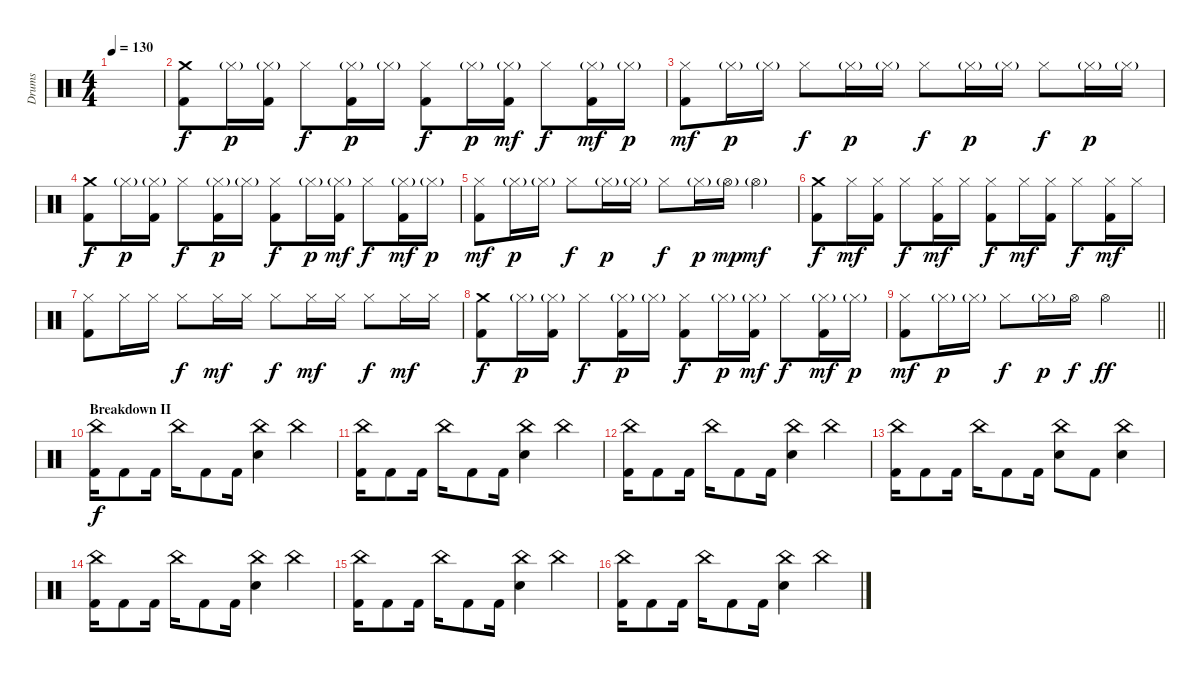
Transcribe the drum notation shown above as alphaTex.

\track ("Drums" "Drums") {instrument percussion}
\staff {score}
\articulation defaults
\ts (4 4)
\tempo 130
\clef neutral
\ks c
|
("Crash medium (hit)" "Kick (hit) 2").8{dy f} "Hi-Hat (closed)"{g}.16{dy p} ("Hi-Hat (closed)"{g} "Kick (hit) 2").16 "Hi-Hat (closed)".8{dy f} ("Hi-Hat (closed)"{g} "Kick (hit) 2").16{dy p} "Hi-Hat (closed)"{g}.16 ("Hi-Hat (closed)" "Kick (hit) 2").8{dy f} "Hi-Hat (closed)"{g}.16{dy p} ("Hi-Hat (closed)"{g} "Kick (hit) 2").16{dy mf} "Hi-Hat (closed)".8{dy f} ("Hi-Hat (closed)"{g} "Kick (hit) 2").16{dy mf} "Hi-Hat (closed)"{g}.16{dy p} |
("Hi-Hat (closed)" "Kick (hit) 2").8{dy mf} "Hi-Hat (closed)"{g}.16{dy p} "Hi-Hat (closed)"{g}.16 "Hi-Hat (closed)".8{dy f} "Hi-Hat (closed)"{g}.16{dy p} "Hi-Hat (closed)"{g}.16 "Hi-Hat (closed)".8{dy f} "Hi-Hat (closed)"{g}.16{dy p} "Hi-Hat (closed)"{g}.16 "Hi-Hat (closed)".8{dy f} "Hi-Hat (closed)"{g}.16{dy p} "Hi-Hat (closed)"{g}.16 |
("Crash medium (hit)" "Kick (hit) 2").8{dy f} "Hi-Hat (closed)"{g}.16{dy p} ("Hi-Hat (closed)"{g} "Kick (hit) 2").16 "Hi-Hat (closed)".8{dy f} ("Hi-Hat (closed)"{g} "Kick (hit) 2").16{dy p} "Hi-Hat (closed)"{g}.16 ("Hi-Hat (closed)" "Kick (hit) 2").8{dy f} "Hi-Hat (closed)"{g}.16{dy p} ("Hi-Hat (closed)"{g} "Kick (hit) 2").16{dy mf} "Hi-Hat (closed)".8{dy f} ("Hi-Hat (closed)"{g} "Kick (hit) 2").16{dy mf} "Hi-Hat (closed)"{g}.16{dy p} |
("Hi-Hat (closed)" "Kick (hit) 2").8{dy mf} "Hi-Hat (closed)"{g}.16{dy p} "Hi-Hat (closed)"{g}.16 "Hi-Hat (closed)".8{dy f} "Hi-Hat (closed)"{g}.16{dy p} "Hi-Hat (closed)"{g}.16 "Hi-Hat (closed)".8{dy f} "Hi-Hat (closed)"{g}.16{dy p} "Hi-Hat (open)"{g}.16{dy mp} "Hi-Hat (open)"{g}.4{dy mf} |
("Crash medium (hit)" "Kick (hit) 2").8{dy f} "Hi-Hat (closed)".16{dy mf} ("Hi-Hat (closed)" "Kick (hit) 2").16 "Hi-Hat (closed)".8{dy f} ("Hi-Hat (closed)" "Kick (hit) 2").16{dy mf} "Hi-Hat (closed)".16 ("Hi-Hat (closed)" "Kick (hit) 2").8{dy f} "Hi-Hat (closed)".16{dy mf} ("Hi-Hat (closed)" "Kick (hit) 2").16 "Hi-Hat (closed)".8{dy f} ("Hi-Hat (closed)" "Kick (hit) 2").16{dy mf} "Hi-Hat (closed)".16 |
("Hi-Hat (closed)" "Kick (hit) 2").8 "Hi-Hat (closed)".16 "Hi-Hat (closed)".16 "Hi-Hat (closed)".8{dy f} "Hi-Hat (closed)".16{dy mf} "Hi-Hat (closed)".16 "Hi-Hat (closed)".8{dy f} "Hi-Hat (closed)".16{dy mf} "Hi-Hat (closed)".16 "Hi-Hat (closed)".8{dy f} "Hi-Hat (closed)".16{dy mf} "Hi-Hat (closed)".16 |
("Crash medium (hit)" "Kick (hit) 2").8{dy f} "Hi-Hat (closed)"{g}.16{dy p} ("Hi-Hat (closed)"{g} "Kick (hit) 2").16 "Hi-Hat (closed)".8{dy f} ("Hi-Hat (closed)"{g} "Kick (hit) 2").16{dy p} "Hi-Hat (closed)"{g}.16 ("Hi-Hat (closed)" "Kick (hit) 2").8{dy f} "Hi-Hat (closed)"{g}.16{dy p} ("Hi-Hat (closed)"{g} "Kick (hit) 2").16{dy mf} "Hi-Hat (closed)".8{dy f} ("Hi-Hat (closed)"{g} "Kick (hit) 2").16{dy mf} "Hi-Hat (closed)"{g}.16{dy p} |
\barLineRight lightlight
("Hi-Hat (closed)" "Kick (hit) 2").8{dy mf} "Hi-Hat (closed)"{g}.16{dy p} "Hi-Hat (closed)"{g}.16 "Hi-Hat (closed)".8{dy f} "Hi-Hat (closed)"{g}.16{dy p} "Hi-Hat (open)".16{dy f} "Hi-Hat (open)".2{dy ff} |
\section ("" "Breakdown II")
("China (hit)" "Kick (hit) 2").16{dy f} "Kick (hit) 2".8 "Kick (hit) 2".16 "China (hit)".16 "Kick (hit) 2".8 "Kick (hit) 2".16 ("China (hit)" "Electric Snare (hit)").4 "China (hit)".4 |
("China (hit)" "Kick (hit) 2").16 "Kick (hit) 2".8 "Kick (hit) 2".16 "China (hit)".16 "Kick (hit) 2".8 "Kick (hit) 2".16 ("China (hit)" "Electric Snare (hit)").4 "China (hit)".4 |
("China (hit)" "Kick (hit) 2").16 "Kick (hit) 2".8 "Kick (hit) 2".16 "China (hit)".16 "Kick (hit) 2".8 "Kick (hit) 2".16 ("China (hit)" "Electric Snare (hit)").4 "China (hit)".4 |
("China (hit)" "Kick (hit) 2").16 "Kick (hit) 2".8 "Kick (hit) 2".16 "China (hit)".16 "Kick (hit) 2".8 "Kick (hit) 2".16 ("China (hit)" "Electric Snare (hit)").8 "Kick (hit) 2".8 ("China (hit)" "Electric Snare (hit)").4 |
("China (hit)" "Kick (hit) 2").16 "Kick (hit) 2".8 "Kick (hit) 2".16 "China (hit)".16 "Kick (hit) 2".8 "Kick (hit) 2".16 ("China (hit)" "Electric Snare (hit)").4 "China (hit)".4 |
("China (hit)" "Kick (hit) 2").16 "Kick (hit) 2".8 "Kick (hit) 2".16 "China (hit)".16 "Kick (hit) 2".8 "Kick (hit) 2".16 ("China (hit)" "Electric Snare (hit)").4 "China (hit)".4 |
("China (hit)" "Kick (hit) 2").16 "Kick (hit) 2".8 "Kick (hit) 2".16 "China (hit)".16 "Kick (hit) 2".8 "Kick (hit) 2".16 ("China (hit)" "Electric Snare (hit)").4 "China (hit)".4
